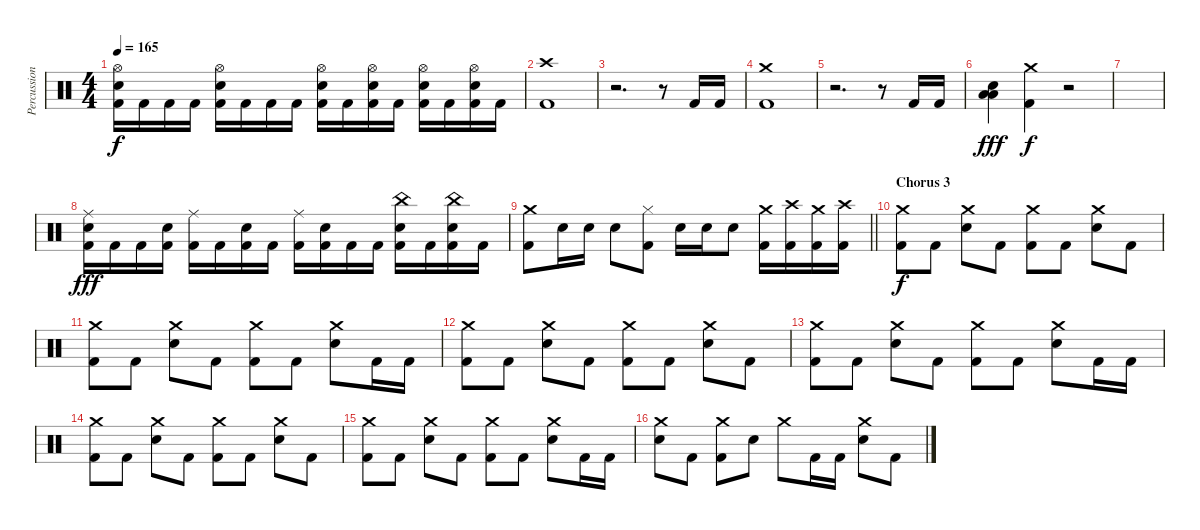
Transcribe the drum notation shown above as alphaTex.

\track ("Percussions" "Percussion") {instrument percussion}
\staff
\articulation defaults
\ts (4 4)
\tempo 165
\clef neutral
\ks c
("Hi-Hat (open)" "Electric Snare (hit)" "Kick (hit) 2").16{dy f} "Kick (hit) 2".16 "Kick (hit) 2".16 "Kick (hit) 2".16 ("Hi-Hat (open)" "Electric Snare (hit)" "Kick (hit) 2").16 "Kick (hit) 2".16 "Kick (hit) 2".16 "Kick (hit) 2".16 ("Hi-Hat (open)" "Electric Snare (hit)" "Kick (hit) 2").16 "Kick (hit) 2".16 ("Hi-Hat (open)" "Electric Snare (hit)" "Kick (hit) 2").16 "Kick (hit) 2".16 ("Hi-Hat (open)" "Electric Snare (hit)" "Kick (hit) 2").16 "Kick (hit) 2".16 ("Hi-Hat (open)" "Electric Snare (hit)" "Kick (hit) 2").16 "Kick (hit) 2".16 |
("Crash high (hit)" "Kick (hit) 2").1 |
r.2{d} r.8 "Kick (hit) 2".16 "Kick (hit) 2".16 |
("Crash medium (hit)" "Kick (hit) 2").1 |
r.2{d} r.8 "Kick (hit) 2".16 "Kick (hit) 2".16 |
("Electric Snare (hit)" "Low Floor Tom (hit)" "Low Floor Tom (hit)").4{dy fff} ("Crash medium (hit)" "Kick (hit) 2").4{dy f} r.2 |
|
("Ride (middle)" "Electric Snare (hit)" "Kick (hit) 2").16{dy fff} "Kick (hit) 2".16 "Kick (hit) 2".16 ("Electric Snare (hit)" "Kick (hit) 2").16 ("Ride (middle)" "Kick (hit) 2").16 "Kick (hit) 2".16 ("Electric Snare (hit)" "Kick (hit) 2").16 "Kick (hit) 2".16 ("Ride (middle)" "Kick (hit) 2").16 ("Electric Snare (hit)" "Kick (hit) 2").16 "Kick (hit) 2".16 "Kick (hit) 2".16 ("China (hit)" "Electric Snare (hit)" "Kick (hit) 2").16 "Kick (hit) 2".16 ("China (hit)" "Electric Snare (hit)" "Kick (hit) 2").16 "Kick (hit) 2".16 |
\barLineRight lightlight
("Crash medium (hit)" "Kick (hit) 2").8 "Electric Snare (hit)".16 "Electric Snare (hit)".16 "Electric Snare (hit)".8 ("Hi-Hat (closed)" "Kick (hit) 2").8 "Electric Snare (hit)".16 "Electric Snare (hit)".16 "Electric Snare (hit)".8 ("Crash medium (hit)" "Kick (hit) 2").16 ("Crash high (hit)" "Kick (hit) 2").16 ("Crash medium (hit)" "Kick (hit) 2").16 ("Crash high (hit)" "Kick (hit) 2").16 |
\section ("" "Chorus 3")
("Crash medium (hit)" "Kick (hit) 2").8{dy f} "Kick (hit) 2".8 ("Crash medium (hit)" "Electric Snare (hit)").8 "Kick (hit) 2".8 ("Crash medium (hit)" "Kick (hit) 2").8 "Kick (hit) 2".8 ("Crash medium (hit)" "Electric Snare (hit)").8 "Kick (hit) 2".8 |
("Crash medium (hit)" "Kick (hit) 2").8 "Kick (hit) 2".8 ("Crash medium (hit)" "Electric Snare (hit)").8 "Kick (hit) 2".8 ("Crash medium (hit)" "Kick (hit) 2").8 "Kick (hit) 2".8 ("Crash medium (hit)" "Electric Snare (hit)").8 "Kick (hit) 2".16 "Kick (hit) 2".16 |
("Crash medium (hit)" "Kick (hit) 2").8 "Kick (hit) 2".8 ("Crash medium (hit)" "Electric Snare (hit)").8 "Kick (hit) 2".8 ("Crash medium (hit)" "Kick (hit) 2").8 "Kick (hit) 2".8 ("Crash medium (hit)" "Electric Snare (hit)").8 "Kick (hit) 2".8 |
("Crash medium (hit)" "Kick (hit) 2").8 "Kick (hit) 2".8 ("Crash medium (hit)" "Electric Snare (hit)").8 "Kick (hit) 2".8 ("Crash medium (hit)" "Kick (hit) 2").8 "Kick (hit) 2".8 ("Crash medium (hit)" "Electric Snare (hit)").8 "Kick (hit) 2".16 "Kick (hit) 2".16 |
("Crash medium (hit)" "Kick (hit) 2").8 "Kick (hit) 2".8 ("Crash medium (hit)" "Electric Snare (hit)").8 "Kick (hit) 2".8 ("Crash medium (hit)" "Kick (hit) 2").8 "Kick (hit) 2".8 ("Crash medium (hit)" "Electric Snare (hit)").8 "Kick (hit) 2".8 |
("Crash medium (hit)" "Kick (hit) 2").8 "Kick (hit) 2".8 ("Crash medium (hit)" "Electric Snare (hit)").8 "Kick (hit) 2".8 ("Crash medium (hit)" "Kick (hit) 2").8 "Kick (hit) 2".8 ("Crash medium (hit)" "Electric Snare (hit)").8 "Kick (hit) 2".16 "Kick (hit) 2".16 |
("Crash medium (hit)" "Electric Snare (hit)").8 "Kick (hit) 2".8 ("Crash medium (hit)" "Kick (hit) 2").8 "Electric Snare (hit)".8 "Crash medium (hit)".8 "Kick (hit) 2".16 "Kick (hit) 2".16 ("Crash medium (hit)" "Electric Snare (hit)").8 "Kick (hit) 2".8
